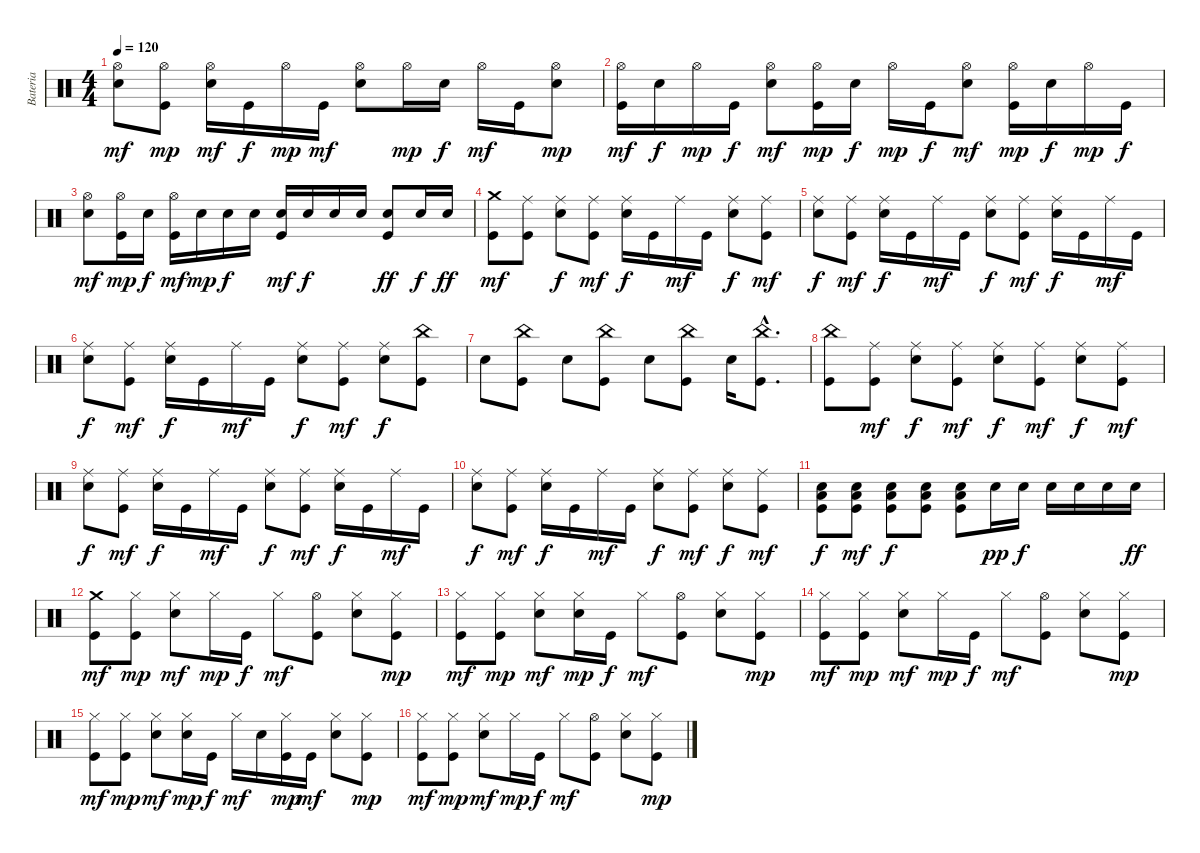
\track ("Bateria" "Bateria") {instrument percussion}
\staff {score}
\articulation defaults
\ts (4 4)
\tempo 120
\clef neutral
\ks c
("Snare (hit) 2" "Hi-Hat (open)").8{dy mf} ("Kick (hit)" "Hi-Hat (open)").8{dy mp} ("Snare (hit) 2" "Hi-Hat (open)").16{dy mf} "Kick (hit)".16{dy f} "Hi-Hat (open)".16{dy mp} "Kick (hit)".16{dy mf} ("Snare (hit) 2" "Hi-Hat (open)").8 "Hi-Hat (open)".16{dy mp} "Snare (hit) 2".16{dy f} "Hi-Hat (open)".16{dy mf} "Kick (hit)".16 ("Snare (hit) 2" "Hi-Hat (open)").8{dy mp} |
("Kick (hit)" "Hi-Hat (open)").16{dy mf} "Snare (hit) 2".16{dy f} "Hi-Hat (open)".16{dy mp} "Kick (hit)".16{dy f} ("Snare (hit) 2" "Hi-Hat (open)").8{dy mf} ("Kick (hit)" "Hi-Hat (open)").16{dy mp} "Snare (hit) 2".16{dy f} "Hi-Hat (open)".16{dy mp} "Kick (hit)".16{dy f} ("Snare (hit) 2" "Hi-Hat (open)").8{dy mf} ("Kick (hit)" "Hi-Hat (open)").16{dy mp} "Snare (hit) 2".16{dy f} "Hi-Hat (open)".16{dy mp} "Kick (hit)".16{dy f} |
("Snare (hit) 2" "Hi-Hat (open)").8{dy mf} ("Kick (hit)" "Hi-Hat (open)").16{dy mp} "Snare (hit) 2".16{dy f} ("Kick (hit)" "Hi-Hat (open)").16{dy mf} "Snare (hit) 2".16{dy mp} "Snare (hit) 2".16{dy f} "Snare (hit) 2".16 ("Kick (hit)" "Snare (hit) 2").16{dy mf} "Snare (hit) 2".16{dy f} "Snare (hit) 2".16 "Snare (hit) 2".16 ("Kick (hit)" "Snare (hit) 2").8{dy ff} "Snare (hit) 2".16{dy f} "Snare (hit) 2".16{dy ff} |
("Kick (hit)" "Crash medium (hit)").8{dy mf} ("Kick (hit)" "Ride (middle)").8 ("Snare (hit) 2" "Ride (middle)").8{dy f} ("Kick (hit)" "Ride (middle)").8{dy mf} ("Snare (hit) 2" "Ride (middle)").16{dy f} "Kick (hit)".16 "Ride (middle)".16{dy mf} "Kick (hit)".16 ("Snare (hit) 2" "Ride (middle)").8{dy f} ("Kick (hit)" "Ride (middle)").8{dy mf} |
("Snare (hit) 2" "Ride (middle)").8{dy f} ("Kick (hit)" "Ride (middle)").8{dy mf} ("Snare (hit) 2" "Ride (middle)").16{dy f} "Kick (hit)".16 "Ride (middle)".16{dy mf} "Kick (hit)".16 ("Snare (hit) 2" "Ride (middle)").8{dy f} ("Kick (hit)" "Ride (middle)").8{dy mf} ("Snare (hit) 2" "Ride (middle)").16{dy f} "Kick (hit)".16 "Ride (middle)".16{dy mf} "Kick (hit)".16 |
("Snare (hit) 2" "Ride (middle)").8{dy f} ("Kick (hit)" "Ride (middle)").8{dy mf} ("Snare (hit) 2" "Ride (middle)").16{dy f} "Kick (hit)".16 "Ride (middle)".16{dy mf} "Kick (hit)".16 ("Snare (hit) 2" "Ride (middle)").8{dy f} ("Kick (hit)" "Ride (middle)").8{dy mf} ("Snare (hit) 2" "Ride (middle)").8{dy f} ("Kick (hit)" "China (hit)").8 |
"Snare (hit) 2".8 ("Kick (hit)" "China (hit)").8 "Snare (hit) 2".8 ("Kick (hit)" "China (hit)").8 "Snare (hit) 2".8 ("Kick (hit)" "China (hit)").8 "Snare (hit) 2".16 ("Kick (hit)" "China (hit)"{hac}).8{d} |
("Kick (hit)" "China (hit)").8 ("Kick (hit)" "Ride (middle)").8{dy mf} ("Snare (hit) 2" "Ride (middle)").8{dy f} ("Kick (hit)" "Ride (middle)").8{dy mf} ("Snare (hit) 2" "Ride (middle)").8{dy f} ("Kick (hit)" "Ride (middle)").8{dy mf} ("Snare (hit) 2" "Ride (middle)").8{dy f} ("Kick (hit)" "Ride (middle)").8{dy mf} |
("Snare (hit) 2" "Ride (middle)").8{dy f} ("Kick (hit)" "Ride (middle)").8{dy mf} ("Snare (hit) 2" "Ride (middle)").16{dy f} "Kick (hit)".16 "Ride (middle)".16{dy mf} "Kick (hit)".16 ("Snare (hit) 2" "Ride (middle)").8{dy f} ("Kick (hit)" "Ride (middle)").8{dy mf} ("Snare (hit) 2" "Ride (middle)").16{dy f} "Kick (hit)".16 "Ride (middle)".16{dy mf} "Kick (hit)".16 |
("Snare (hit) 2" "Ride (middle)").8{dy f} ("Kick (hit)" "Ride (middle)").8{dy mf} ("Snare (hit) 2" "Ride (middle)").16{dy f} "Kick (hit)".16 "Ride (middle)".16{dy mf} "Kick (hit)".16 ("Snare (hit) 2" "Ride (middle)").8{dy f} ("Kick (hit)" "Ride (middle)").8{dy mf} ("Snare (hit) 2" "Ride (middle)").8{dy f} ("Kick (hit)" "Ride (middle)").8{dy mf} |
("Kick (hit)" "Snare (hit) 2" "Low Floor Tom (hit)").8{dy f} ("Kick (hit)" "Snare (hit) 2" "Low Floor Tom (hit)").8{dy mf} ("Kick (hit)" "Snare (hit) 2" "Low Floor Tom (hit)").8{dy f} ("Kick (hit)" "Snare (hit) 2" "Low Floor Tom (hit)").8 ("Kick (hit)" "Snare (hit) 2" "Low Floor Tom (hit)").8 "Snare (hit) 2".16{dy pp} "Snare (hit) 2".16{dy f} "Snare (hit) 2".16 "Snare (hit) 2".16 "Snare (hit) 2".16 "Snare (hit) 2".16{dy ff} |
("Kick (hit)" "Crash medium (hit)").8{dy mf} ("Kick (hit)" "Hi-Hat (closed)").8{dy mp} ("Snare (hit) 2" "Hi-Hat (closed)").8{dy mf} "Hi-Hat (closed)".16{dy mp} "Kick (hit)".16{dy f} "Hi-Hat (closed)".8{dy mf} ("Kick (hit)" "Hi-Hat (open)").8 ("Snare (hit) 2" "Hi-Hat (closed)").8 ("Kick (hit)" "Hi-Hat (closed)").8{dy mp} |
("Kick (hit)" "Hi-Hat (closed)").8{dy mf} ("Kick (hit)" "Hi-Hat (closed)").8{dy mp} ("Snare (hit) 2" "Hi-Hat (closed)").8{dy mf} ("Snare (hit) 2" "Hi-Hat (closed)").16{dy mp} "Kick (hit)".16{dy f} "Hi-Hat (closed)".8{dy mf} ("Kick (hit)" "Hi-Hat (open)").8 ("Snare (hit) 2" "Hi-Hat (closed)").8 ("Kick (hit)" "Hi-Hat (closed)").8{dy mp} |
("Kick (hit)" "Hi-Hat (closed)").8{dy mf} ("Kick (hit)" "Hi-Hat (closed)").8{dy mp} ("Snare (hit) 2" "Hi-Hat (closed)").8{dy mf} "Hi-Hat (closed)".16{dy mp} "Kick (hit)".16{dy f} "Hi-Hat (closed)".8{dy mf} ("Kick (hit)" "Hi-Hat (open)").8 ("Snare (hit) 2" "Hi-Hat (closed)").8 ("Kick (hit)" "Hi-Hat (closed)").8{dy mp} |
("Kick (hit)" "Hi-Hat (closed)").8{dy mf} ("Kick (hit)" "Hi-Hat (closed)").8{dy mp} ("Snare (hit) 2" "Hi-Hat (closed)").8{dy mf} ("Snare (hit) 2" "Hi-Hat (closed)").16{dy mp} "Kick (hit)".16{dy f} "Hi-Hat (closed)".16{dy mf} "Snare (hit) 2".16 ("Kick (hit)" "Hi-Hat (closed)").16{dy mp} "Kick (hit)".16{dy mf} ("Snare (hit) 2" "Hi-Hat (closed)").8 ("Kick (hit)" "Hi-Hat (closed)").8{dy mp} |
("Kick (hit)" "Hi-Hat (closed)").8{dy mf} ("Kick (hit)" "Hi-Hat (closed)").8{dy mp} ("Snare (hit) 2" "Hi-Hat (closed)").8{dy mf} "Hi-Hat (closed)".16{dy mp} "Kick (hit)".16{dy f} "Hi-Hat (closed)".8{dy mf} ("Kick (hit)" "Hi-Hat (open)").8 ("Snare (hit) 2" "Hi-Hat (closed)").8 ("Kick (hit)" "Hi-Hat (closed)").8{dy mp}
